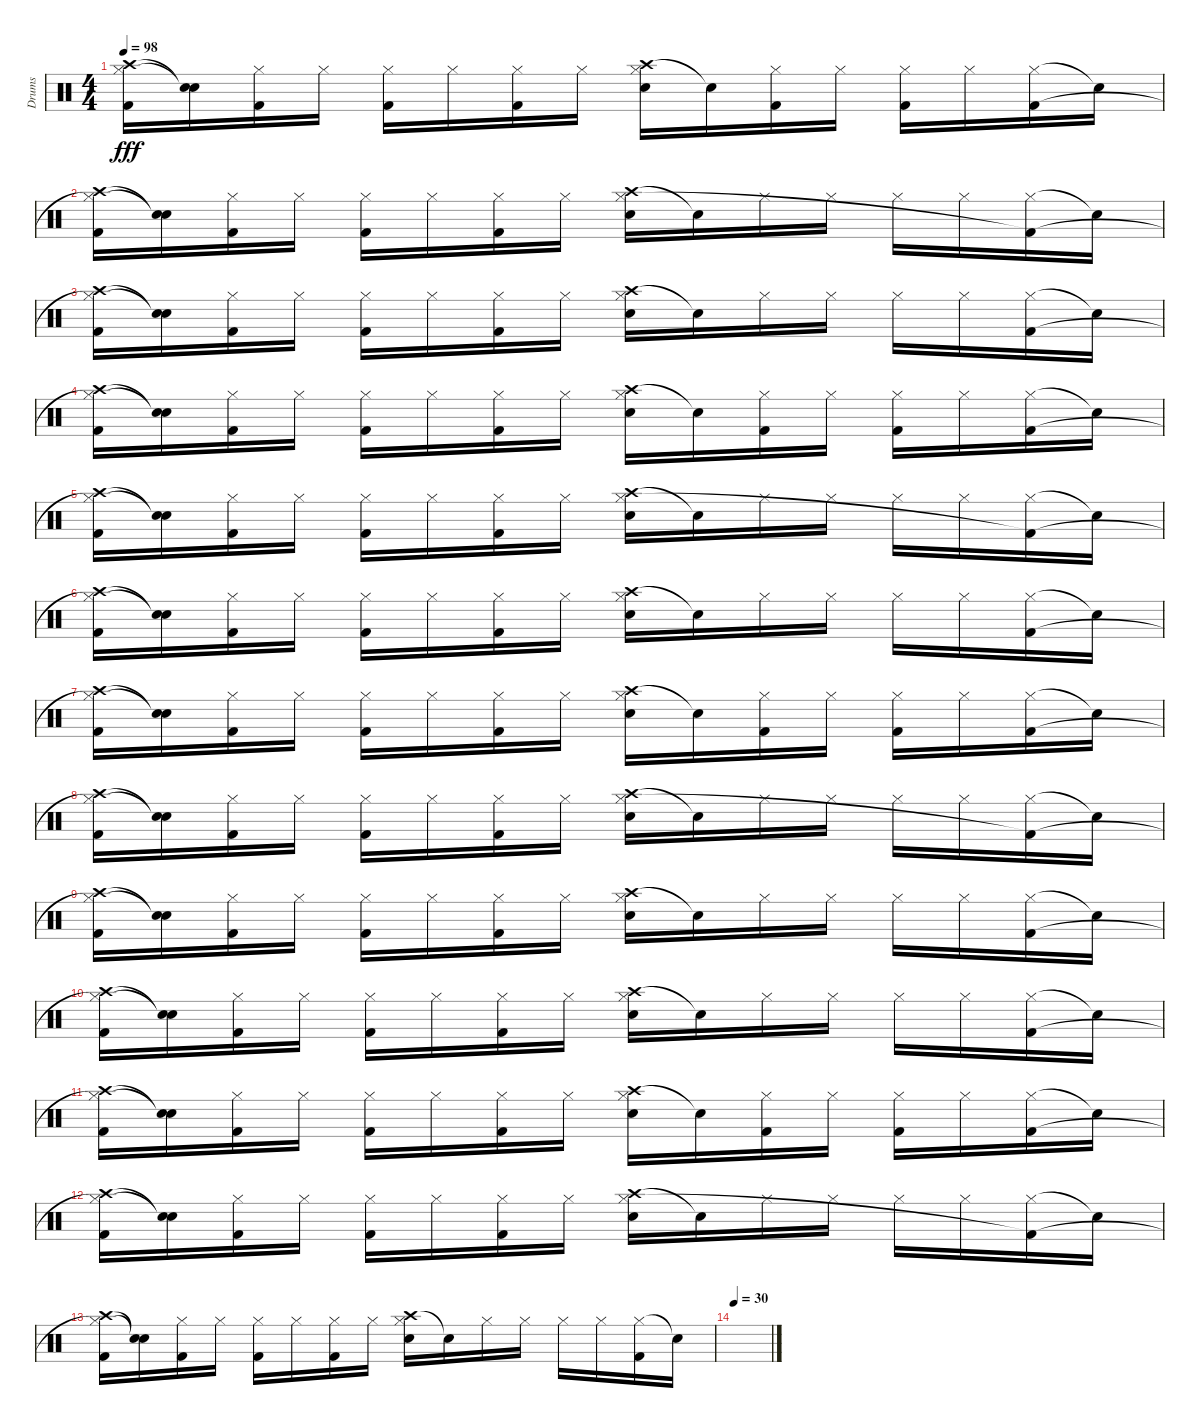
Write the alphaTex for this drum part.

\track ("Drums" "Drums") {instrument percussion}
\staff {score}
\articulation defaults
\ts (4 4)
\tempo 98
\clef neutral
\ks c
("Crash high (hit)" "Hi-Hat (closed)"{t} "Kick (hit) 2").16{dy fff} ("Snare (hit)"{t} "Snare (hit)"{t}).16 ("Hi-Hat (closed)" "Kick (hit) 2").16 "Hi-Hat (closed)".16 ("Hi-Hat (closed)" "Kick (hit) 2").16 "Hi-Hat (closed)".16 ("Hi-Hat (closed)" "Kick (hit) 2").16 "Hi-Hat (closed)".16 ("Crash high (hit)" "Hi-Hat (closed)" "Electric Snare (hit)").16 "Snare (hit)"{t}.16 ("Hi-Hat (closed)" "Kick (hit) 2").16 "Hi-Hat (closed)".16 ("Hi-Hat (closed)" "Kick (hit) 2").16 "Hi-Hat (closed)".16 ("Hi-Hat (closed)" "Kick (hit) 2").16 "Snare (hit)"{t}.16 |
("Crash high (hit)" "Hi-Hat (closed)"{t} "Kick (hit) 2").16 ("Snare (hit)"{t} "Snare (hit)"{t}).16 ("Hi-Hat (closed)" "Kick (hit) 2").16 "Hi-Hat (closed)".16 ("Hi-Hat (closed)" "Kick (hit) 2").16 "Hi-Hat (closed)".16 ("Hi-Hat (closed)" "Kick (hit) 2").16 "Hi-Hat (closed)".16 ("Crash high (hit)" "Hi-Hat (closed)" "Electric Snare (hit)").16 "Snare (hit)"{t}.16 "Hi-Hat (closed)".16 "Hi-Hat (closed)".16 "Hi-Hat (closed)".16 "Hi-Hat (closed)".16 ("Hi-Hat (closed)" "Kick (hit) 2"{t}).16 "Snare (hit)"{t}.16 |
("Crash high (hit)" "Hi-Hat (closed)"{t} "Kick (hit) 2").16 ("Snare (hit)"{t} "Snare (hit)"{t}).16 ("Hi-Hat (closed)" "Kick (hit) 2").16 "Hi-Hat (closed)".16 ("Hi-Hat (closed)" "Kick (hit) 2").16 "Hi-Hat (closed)".16 ("Hi-Hat (closed)" "Kick (hit) 2").16 "Hi-Hat (closed)".16 ("Crash high (hit)" "Hi-Hat (closed)" "Electric Snare (hit)").16 "Snare (hit)"{t}.16 "Hi-Hat (closed)".16 "Hi-Hat (closed)".16 "Hi-Hat (closed)".16 "Hi-Hat (closed)".16 ("Hi-Hat (closed)" "Kick (hit) 2").16 "Snare (hit)"{t}.16 |
("Crash high (hit)" "Hi-Hat (closed)"{t} "Kick (hit) 2").16 ("Snare (hit)"{t} "Snare (hit)"{t}).16 ("Hi-Hat (closed)" "Kick (hit) 2").16 "Hi-Hat (closed)".16 ("Hi-Hat (closed)" "Kick (hit) 2").16 "Hi-Hat (closed)".16 ("Hi-Hat (closed)" "Kick (hit) 2").16 "Hi-Hat (closed)".16 ("Crash high (hit)" "Hi-Hat (closed)" "Electric Snare (hit)").16 "Snare (hit)"{t}.16 ("Hi-Hat (closed)" "Kick (hit) 2").16 "Hi-Hat (closed)".16 ("Hi-Hat (closed)" "Kick (hit) 2").16 "Hi-Hat (closed)".16 ("Hi-Hat (closed)" "Kick (hit) 2").16 "Snare (hit)"{t}.16 |
("Crash high (hit)" "Hi-Hat (closed)"{t} "Kick (hit) 2").16 ("Snare (hit)"{t} "Snare (hit)"{t}).16 ("Hi-Hat (closed)" "Kick (hit) 2").16 "Hi-Hat (closed)".16 ("Hi-Hat (closed)" "Kick (hit) 2").16 "Hi-Hat (closed)".16 ("Hi-Hat (closed)" "Kick (hit) 2").16 "Hi-Hat (closed)".16 ("Crash high (hit)" "Hi-Hat (closed)" "Electric Snare (hit)").16 "Snare (hit)"{t}.16 "Hi-Hat (closed)".16 "Hi-Hat (closed)".16 "Hi-Hat (closed)".16 "Hi-Hat (closed)".16 ("Hi-Hat (closed)" "Kick (hit) 2"{t}).16 "Snare (hit)"{t}.16 |
("Crash high (hit)" "Hi-Hat (closed)"{t} "Kick (hit) 2").16 ("Snare (hit)"{t} "Snare (hit)"{t}).16 ("Hi-Hat (closed)" "Kick (hit) 2").16 "Hi-Hat (closed)".16 ("Hi-Hat (closed)" "Kick (hit) 2").16 "Hi-Hat (closed)".16 ("Hi-Hat (closed)" "Kick (hit) 2").16 "Hi-Hat (closed)".16 ("Crash high (hit)" "Hi-Hat (closed)" "Electric Snare (hit)").16 "Snare (hit)"{t}.16 "Hi-Hat (closed)".16 "Hi-Hat (closed)".16 "Hi-Hat (closed)".16 "Hi-Hat (closed)".16 ("Hi-Hat (closed)" "Kick (hit) 2").16 "Snare (hit)"{t}.16 |
("Crash high (hit)" "Hi-Hat (closed)"{t} "Kick (hit) 2").16 ("Snare (hit)"{t} "Snare (hit)"{t}).16 ("Hi-Hat (closed)" "Kick (hit) 2").16 "Hi-Hat (closed)".16 ("Hi-Hat (closed)" "Kick (hit) 2").16 "Hi-Hat (closed)".16 ("Hi-Hat (closed)" "Kick (hit) 2").16 "Hi-Hat (closed)".16 ("Crash high (hit)" "Hi-Hat (closed)" "Electric Snare (hit)").16 "Snare (hit)"{t}.16 ("Hi-Hat (closed)" "Kick (hit) 2").16 "Hi-Hat (closed)".16 ("Hi-Hat (closed)" "Kick (hit) 2").16 "Hi-Hat (closed)".16 ("Hi-Hat (closed)" "Kick (hit) 2").16 "Snare (hit)"{t}.16 |
("Crash high (hit)" "Hi-Hat (closed)"{t} "Kick (hit) 2").16 ("Snare (hit)"{t} "Snare (hit)"{t}).16 ("Hi-Hat (closed)" "Kick (hit) 2").16 "Hi-Hat (closed)".16 ("Hi-Hat (closed)" "Kick (hit) 2").16 "Hi-Hat (closed)".16 ("Hi-Hat (closed)" "Kick (hit) 2").16 "Hi-Hat (closed)".16 ("Crash high (hit)" "Hi-Hat (closed)" "Electric Snare (hit)").16 "Snare (hit)"{t}.16 "Hi-Hat (closed)".16 "Hi-Hat (closed)".16 "Hi-Hat (closed)".16 "Hi-Hat (closed)".16 ("Hi-Hat (closed)" "Kick (hit) 2"{t}).16 "Snare (hit)"{t}.16 |
("Crash high (hit)" "Hi-Hat (closed)"{t} "Kick (hit) 2").16 ("Snare (hit)"{t} "Snare (hit)"{t}).16 ("Hi-Hat (closed)" "Kick (hit) 2").16 "Hi-Hat (closed)".16 ("Hi-Hat (closed)" "Kick (hit) 2").16 "Hi-Hat (closed)".16 ("Hi-Hat (closed)" "Kick (hit) 2").16 "Hi-Hat (closed)".16 ("Crash high (hit)" "Hi-Hat (closed)" "Electric Snare (hit)").16 "Snare (hit)"{t}.16 "Hi-Hat (closed)".16 "Hi-Hat (closed)".16 "Hi-Hat (closed)".16 "Hi-Hat (closed)".16 ("Hi-Hat (closed)" "Kick (hit) 2").16 "Snare (hit)"{t}.16 |
("Crash high (hit)" "Hi-Hat (closed)"{t} "Kick (hit) 2").16 ("Snare (hit)"{t} "Snare (hit)"{t}).16 ("Hi-Hat (closed)" "Kick (hit) 2").16 "Hi-Hat (closed)".16 ("Hi-Hat (closed)" "Kick (hit) 2").16 "Hi-Hat (closed)".16 ("Hi-Hat (closed)" "Kick (hit) 2").16 "Hi-Hat (closed)".16 ("Crash high (hit)" "Hi-Hat (closed)" "Electric Snare (hit)").16 "Snare (hit)"{t}.16 "Hi-Hat (closed)".16 "Hi-Hat (closed)".16 "Hi-Hat (closed)".16 "Hi-Hat (closed)".16 ("Hi-Hat (closed)" "Kick (hit) 2").16 "Snare (hit)"{t}.16 |
("Crash high (hit)" "Hi-Hat (closed)"{t} "Kick (hit) 2").16 ("Snare (hit)"{t} "Snare (hit)"{t}).16 ("Hi-Hat (closed)" "Kick (hit) 2").16 "Hi-Hat (closed)".16 ("Hi-Hat (closed)" "Kick (hit) 2").16 "Hi-Hat (closed)".16 ("Hi-Hat (closed)" "Kick (hit) 2").16 "Hi-Hat (closed)".16 ("Crash high (hit)" "Hi-Hat (closed)" "Electric Snare (hit)").16 "Snare (hit)"{t}.16 ("Hi-Hat (closed)" "Kick (hit) 2").16 "Hi-Hat (closed)".16 ("Hi-Hat (closed)" "Kick (hit) 2").16 "Hi-Hat (closed)".16 ("Hi-Hat (closed)" "Kick (hit) 2").16 "Snare (hit)"{t}.16 |
("Crash high (hit)" "Hi-Hat (closed)"{t} "Kick (hit) 2").16 ("Snare (hit)"{t} "Snare (hit)"{t}).16 ("Hi-Hat (closed)" "Kick (hit) 2").16 "Hi-Hat (closed)".16 ("Hi-Hat (closed)" "Kick (hit) 2").16 "Hi-Hat (closed)".16 ("Hi-Hat (closed)" "Kick (hit) 2").16 "Hi-Hat (closed)".16 ("Crash high (hit)" "Hi-Hat (closed)" "Electric Snare (hit)").16 "Snare (hit)"{t}.16 "Hi-Hat (closed)".16 "Hi-Hat (closed)".16 "Hi-Hat (closed)".16 "Hi-Hat (closed)".16 ("Hi-Hat (closed)" "Kick (hit) 2"{t}).16 "Snare (hit)"{t}.16 |
("Crash high (hit)" "Hi-Hat (closed)"{t} "Kick (hit) 2").16 ("Snare (hit)"{t} "Snare (hit)"{t}).16 ("Hi-Hat (closed)" "Kick (hit) 2").16 "Hi-Hat (closed)".16 ("Hi-Hat (closed)" "Kick (hit) 2").16 "Hi-Hat (closed)".16 ("Hi-Hat (closed)" "Kick (hit) 2").16 "Hi-Hat (closed)".16 ("Crash high (hit)" "Hi-Hat (closed)" "Electric Snare (hit)").16 "Snare (hit)"{t}.16 "Hi-Hat (closed)".16 "Hi-Hat (closed)".16 "Hi-Hat (closed)".16 "Hi-Hat (closed)".16 ("Hi-Hat (closed)" "Kick (hit) 2").16 "Snare (hit)"{t}.16 |
\tempo 30
